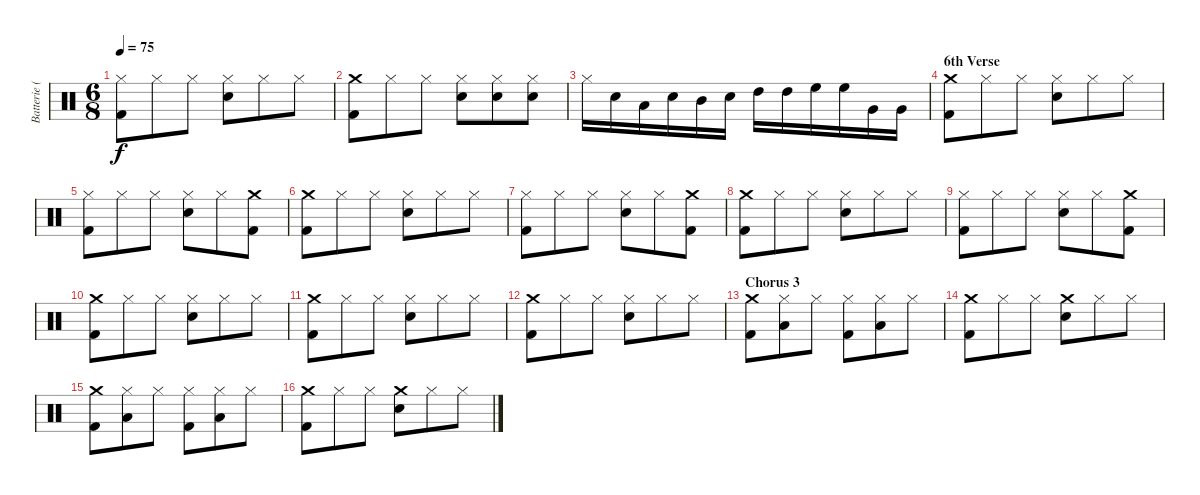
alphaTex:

\track ("Batterie ( Lars Ulrich )" "Batterie (") {instrument percussion}
\staff {score}
\articulation defaults
\ts (6 8)
\tempo 75
\clef neutral
\ks c
("Kick (hit) 2" "Hi-Hat (closed)").8{dy f} "Hi-Hat (closed)".8 "Hi-Hat (closed)".8 ("Snare (hit) 2" "Hi-Hat (closed)").8 "Hi-Hat (closed)".8 "Hi-Hat (closed)".8 |
("Kick (hit) 2" "Crash medium (hit)").8 "Hi-Hat (closed)".8 "Hi-Hat (closed)".8 ("Snare (hit) 2" "Hi-Hat (closed)").8 ("Snare (hit) 2" "Hi-Hat (closed)").8 ("Snare (hit) 2" "Hi-Hat (closed)").8 |
"Hi-Hat (closed)".16 "Snare (hit) 2".16 "Low Tom (hit)".16 "Snare (hit) 2".16 "Mid Tom (hit)".16 "Snare (hit) 2".16 "High Tom (hit)".16 "High Tom (hit)".16 "High Floor Tom (hit)".16 "High Floor Tom (hit)".16 "Very Low Tom (hit)".16 "Very Low Tom (hit)".16 |
\section ("" "6th Verse")
("Kick (hit) 2" "Crash medium (hit)").8 "Hi-Hat (closed)".8 "Hi-Hat (closed)".8 ("Snare (hit) 2" "Hi-Hat (closed)").8 "Hi-Hat (closed)".8 "Hi-Hat (closed)".8 |
("Kick (hit) 2" "Hi-Hat (closed)").8 "Hi-Hat (closed)".8 "Hi-Hat (closed)".8 ("Snare (hit) 2" "Hi-Hat (closed)").8 "Hi-Hat (closed)".8 ("Kick (hit) 2" "Crash medium (hit)").8 |
("Kick (hit) 2" "Crash medium (hit)").8 "Hi-Hat (closed)".8 "Hi-Hat (closed)".8 ("Snare (hit) 2" "Hi-Hat (closed)").8 "Hi-Hat (closed)".8 "Hi-Hat (closed)".8 |
("Kick (hit) 2" "Hi-Hat (closed)").8 "Hi-Hat (closed)".8 "Hi-Hat (closed)".8 ("Snare (hit) 2" "Hi-Hat (closed)").8 "Hi-Hat (closed)".8 ("Kick (hit) 2" "Crash medium (hit)").8 |
("Kick (hit) 2" "Crash medium (hit)").8 "Hi-Hat (closed)".8 "Hi-Hat (closed)".8 ("Snare (hit) 2" "Hi-Hat (closed)").8 "Hi-Hat (closed)".8 "Hi-Hat (closed)".8 |
("Kick (hit) 2" "Hi-Hat (closed)").8 "Hi-Hat (closed)".8 "Hi-Hat (closed)".8 ("Snare (hit) 2" "Hi-Hat (closed)").8 "Hi-Hat (closed)".8 ("Kick (hit) 2" "Crash medium (hit)").8 |
("Kick (hit) 2" "Crash medium (hit)").8 "Hi-Hat (closed)".8 "Hi-Hat (closed)".8 ("Snare (hit) 2" "Hi-Hat (closed)").8 "Hi-Hat (closed)".8 "Hi-Hat (closed)".8 |
("Kick (hit) 2" "Crash medium (hit)").8 "Hi-Hat (closed)".8 "Hi-Hat (closed)".8 ("Snare (hit) 2" "Hi-Hat (closed)").8 "Hi-Hat (closed)".8 "Hi-Hat (closed)".8 |
("Kick (hit) 2" "Crash medium (hit)").8 "Hi-Hat (closed)".8 "Hi-Hat (closed)".8 ("Snare (hit) 2" "Hi-Hat (closed)").8 "Hi-Hat (closed)".8 "Hi-Hat (closed)".8 |
\section ("" "Chorus 3")
("Kick (hit) 2" "Crash medium (hit)").8 ("Low Tom (hit)" "Hi-Hat (closed)").8 "Hi-Hat (closed)".8 ("Kick (hit) 2" "Hi-Hat (closed)").8 ("Low Tom (hit)" "Hi-Hat (closed)").8 "Hi-Hat (closed)".8 |
("Kick (hit) 2" "Crash medium (hit)").8 "Hi-Hat (closed)".8 "Hi-Hat (closed)".8 ("Snare (hit) 2" "Crash medium (hit)").8 "Hi-Hat (closed)".8 "Hi-Hat (closed)".8 |
("Kick (hit) 2" "Crash medium (hit)").8 ("Low Tom (hit)" "Hi-Hat (closed)").8 "Hi-Hat (closed)".8 ("Kick (hit) 2" "Hi-Hat (closed)").8 ("Low Tom (hit)" "Hi-Hat (closed)").8 "Hi-Hat (closed)".8 |
("Kick (hit) 2" "Crash medium (hit)").8 "Hi-Hat (closed)".8 "Hi-Hat (closed)".8 ("Crash medium (hit)" "Snare (hit) 2").8 "Hi-Hat (closed)".8 "Hi-Hat (closed)".8
